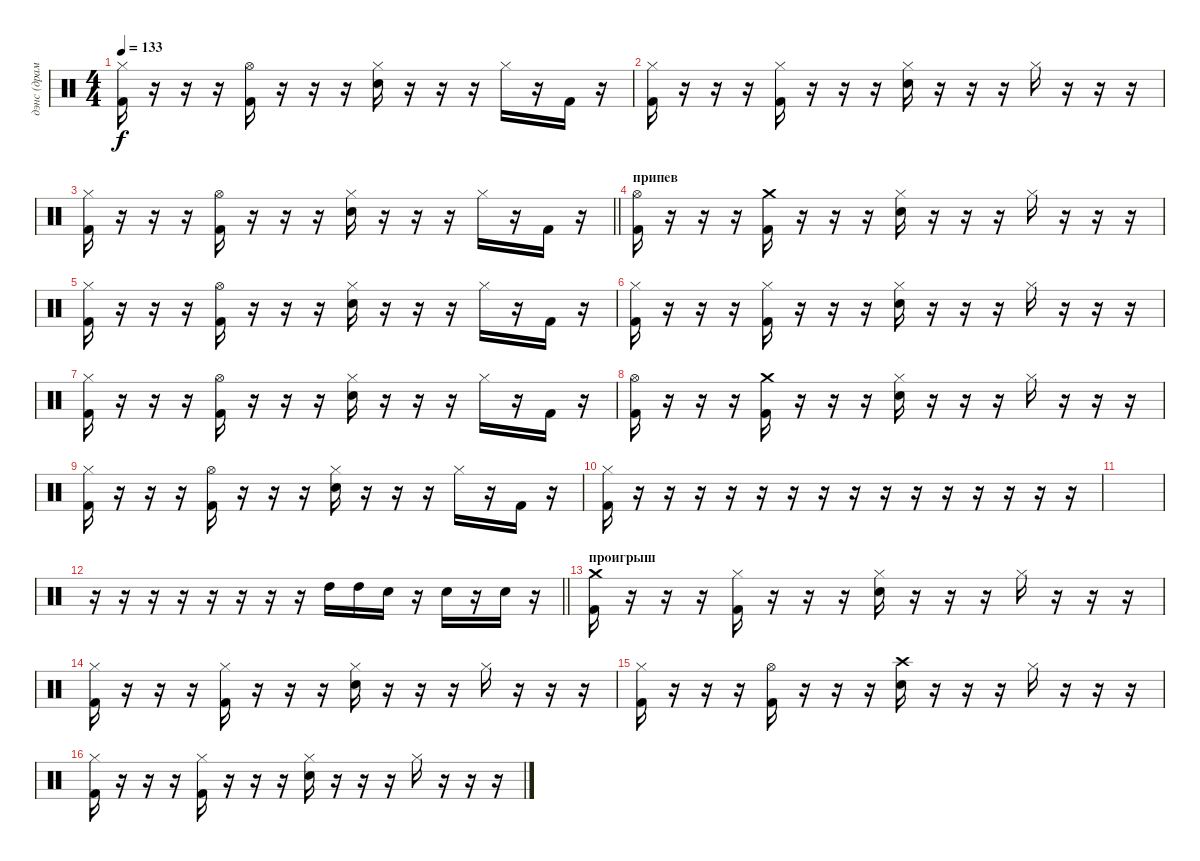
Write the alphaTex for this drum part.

\track ("дэнс (драммы)" "дэнс (драм") {instrument percussion}
\staff {score}
\articulation defaults
\ts (4 4)
\tempo 133
\clef neutral
\ks c
("Kick (hit) 2" "Hi-Hat (closed)").16{dy f} r.16 r.16 r.16 ("Kick (hit) 2" "Hi-Hat (open)").16 r.16 r.16 r.16 ("Snare (hit) 2" "Hi-Hat (closed)").16 r.16 r.16 r.16 "Hi-Hat (closed)".16 r.16 "Kick (hit) 2".16 r.16 |
("Kick (hit) 2" "Hi-Hat (closed)").16 r.16 r.16 r.16 ("Kick (hit) 2" "Hi-Hat (closed)").16 r.16 r.16 r.16 ("Snare (hit) 2" "Hi-Hat (closed)").16 r.16 r.16 r.16 "Hi-Hat (closed)".16 r.16 r.16 r.16 |
\barLineRight lightlight
("Kick (hit) 2" "Hi-Hat (closed)").16 r.16 r.16 r.16 ("Kick (hit) 2" "Hi-Hat (open)").16 r.16 r.16 r.16 ("Snare (hit) 2" "Hi-Hat (closed)").16 r.16 r.16 r.16 "Hi-Hat (closed)".16 r.16 "Kick (hit) 2".16 r.16 |
\section ("" "припев")
("Kick (hit) 2" "Hi-Hat (open)").16 r.16 r.16 r.16 ("Kick (hit) 2" "Crash medium (hit)").16 r.16 r.16 r.16 ("Snare (hit) 2" "Hi-Hat (closed)").16 r.16 r.16 r.16 "Hi-Hat (closed)".16 r.16 r.16 r.16 |
("Kick (hit) 2" "Hi-Hat (closed)").16 r.16 r.16 r.16 ("Kick (hit) 2" "Hi-Hat (open)").16 r.16 r.16 r.16 ("Snare (hit) 2" "Hi-Hat (closed)").16 r.16 r.16 r.16 "Hi-Hat (closed)".16 r.16 "Kick (hit) 2".16 r.16 |
("Kick (hit) 2" "Hi-Hat (closed)").16 r.16 r.16 r.16 ("Kick (hit) 2" "Hi-Hat (closed)").16 r.16 r.16 r.16 ("Snare (hit) 2" "Hi-Hat (closed)").16 r.16 r.16 r.16 "Hi-Hat (closed)".16 r.16 r.16 r.16 |
("Kick (hit) 2" "Hi-Hat (closed)").16 r.16 r.16 r.16 ("Kick (hit) 2" "Hi-Hat (open)").16 r.16 r.16 r.16 ("Snare (hit) 2" "Hi-Hat (closed)").16 r.16 r.16 r.16 "Hi-Hat (closed)".16 r.16 "Kick (hit) 2".16 r.16 |
("Kick (hit) 2" "Hi-Hat (open)").16 r.16 r.16 r.16 ("Kick (hit) 2" "Crash medium (hit)").16 r.16 r.16 r.16 ("Snare (hit) 2" "Hi-Hat (closed)").16 r.16 r.16 r.16 "Hi-Hat (closed)".16 r.16 r.16 r.16 |
("Kick (hit) 2" "Hi-Hat (closed)").16 r.16 r.16 r.16 ("Kick (hit) 2" "Hi-Hat (open)").16 r.16 r.16 r.16 ("Snare (hit) 2" "Hi-Hat (closed)").16 r.16 r.16 r.16 "Hi-Hat (closed)".16 r.16 "Kick (hit) 2".16 r.16 |
("Kick (hit) 2" "Hi-Hat (closed)").16 r.16 r.16 r.16 r.16 r.16 r.16 r.16 r.16 r.16 r.16 r.16 r.16 r.16 r.16 r.16 |
|
\barLineRight lightlight
r.16 r.16 r.16 r.16 r.16 r.16 r.16 r.16 "High Tom (hit)".16 "High Tom (hit)".16 "Snare (hit) 2".16 r.16 "Snare (hit) 2".16 r.16 "Snare (hit) 2".16 r.16 |
\section ("" "проигрыш")
("Kick (hit) 2" "Crash medium (hit)").16 r.16 r.16 r.16 ("Kick (hit) 2" "Hi-Hat (closed)").16 r.16 r.16 r.16 ("Snare (hit) 2" "Hi-Hat (closed)").16 r.16 r.16 r.16 "Hi-Hat (closed)".16 r.16 r.16 r.16 |
("Kick (hit) 2" "Hi-Hat (closed)").16 r.16 r.16 r.16 ("Kick (hit) 2" "Hi-Hat (closed)").16 r.16 r.16 r.16 ("Snare (hit) 2" "Hi-Hat (closed)").16 r.16 r.16 r.16 "Hi-Hat (closed)".16 r.16 r.16 r.16 |
("Kick (hit) 2" "Hi-Hat (closed)").16 r.16 r.16 r.16 ("Kick (hit) 2" "Hi-Hat (open)").16 r.16 r.16 r.16 ("Snare (hit) 2" "Crash high (hit)").16 r.16 r.16 r.16 "Hi-Hat (closed)".16 r.16 r.16 r.16 |
("Kick (hit) 2" "Hi-Hat (closed)").16 r.16 r.16 r.16 ("Kick (hit) 2" "Hi-Hat (closed)").16 r.16 r.16 r.16 ("Snare (hit) 2" "Hi-Hat (closed)").16 r.16 r.16 r.16 "Hi-Hat (closed)".16 r.16 r.16 r.16
